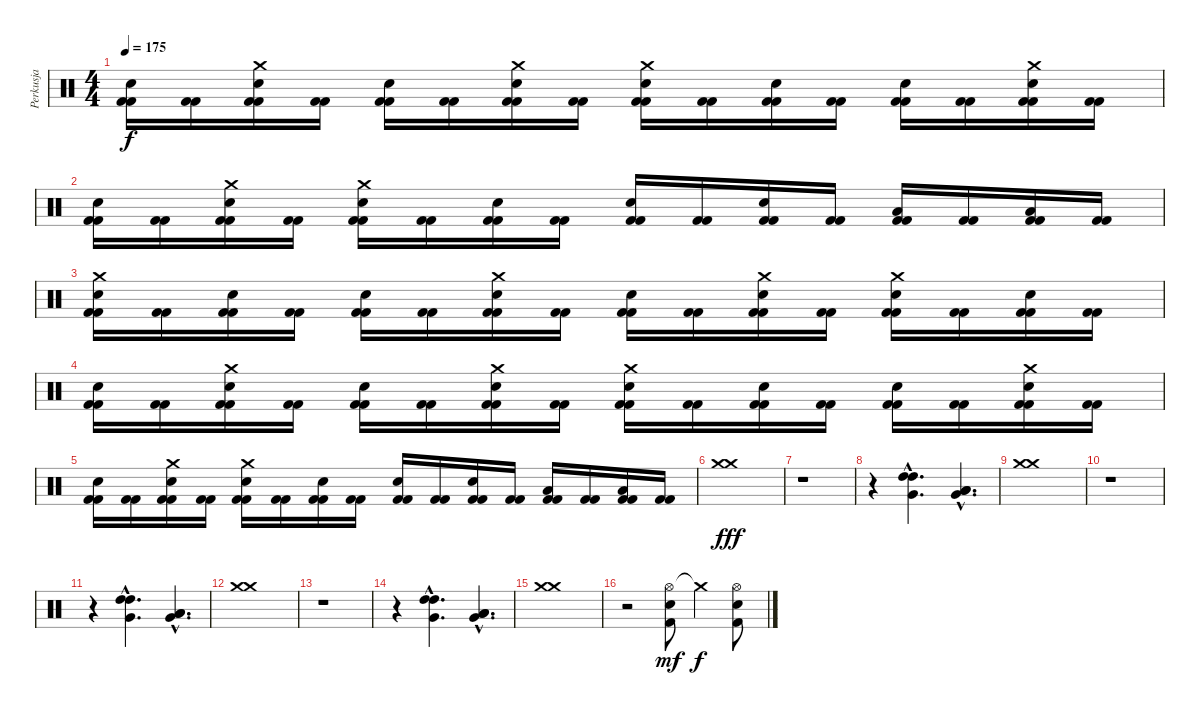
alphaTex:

\track ("Perkusja" "Perkusja") {instrument percussion}
\staff {score}
\articulation defaults
\ts (4 4)
\tempo 175
\clef neutral
\ks c
("Snare (hit) 2" "Kick (hit) 2" "Kick (hit) 2").16{dy f} ("Kick (hit) 2" "Kick (hit) 2").16 ("Crash medium (hit)" "Snare (hit) 2" "Kick (hit) 2" "Kick (hit) 2").16 ("Kick (hit) 2" "Kick (hit) 2").16 ("Snare (hit) 2" "Kick (hit) 2" "Kick (hit) 2").16 ("Kick (hit) 2" "Kick (hit) 2").16 ("Crash medium (hit)" "Snare (hit) 2" "Kick (hit) 2" "Kick (hit) 2").16 ("Kick (hit) 2" "Kick (hit) 2").16 ("Crash medium (hit)" "Snare (hit) 2" "Kick (hit) 2" "Kick (hit) 2").16 ("Kick (hit) 2" "Kick (hit) 2").16 ("Snare (hit) 2" "Kick (hit) 2" "Kick (hit) 2").16 ("Kick (hit) 2" "Kick (hit) 2").16 ("Snare (hit) 2" "Kick (hit) 2" "Kick (hit) 2").16 ("Kick (hit) 2" "Kick (hit) 2").16 ("Crash medium (hit)" "Snare (hit) 2" "Kick (hit) 2" "Kick (hit) 2").16 ("Kick (hit) 2" "Kick (hit) 2").16 |
("Snare (hit) 2" "Kick (hit) 2" "Kick (hit) 2").16 ("Kick (hit) 2" "Kick (hit) 2").16 ("Crash medium (hit)" "Snare (hit) 2" "Kick (hit) 2" "Kick (hit) 2").16 ("Kick (hit) 2" "Kick (hit) 2").16 ("Crash medium (hit)" "Snare (hit) 2" "Kick (hit) 2" "Kick (hit) 2").16 ("Kick (hit) 2" "Kick (hit) 2").16 ("Snare (hit) 2" "Kick (hit) 2" "Kick (hit) 2").16 ("Kick (hit) 2" "Kick (hit) 2").16 ("Electric Snare (hit)" "Kick (hit) 2" "Kick (hit) 2").16 ("Kick (hit) 2" "Kick (hit) 2").16 ("Electric Snare (hit)" "Kick (hit) 2" "Kick (hit) 2").16 ("Kick (hit) 2" "Kick (hit) 2").16 ("Low Tom (hit)" "Kick (hit) 2" "Kick (hit) 2").16 ("Kick (hit) 2" "Kick (hit) 2").16 ("Low Tom (hit)" "Kick (hit) 2" "Kick (hit) 2").16 ("Kick (hit) 2" "Kick (hit) 2").16 |
("Crash medium (hit)" "Snare (hit) 2" "Kick (hit) 2" "Kick (hit) 2").16 ("Kick (hit) 2" "Kick (hit) 2").16 ("Snare (hit) 2" "Kick (hit) 2" "Kick (hit) 2").16 ("Kick (hit) 2" "Kick (hit) 2").16 ("Snare (hit) 2" "Kick (hit) 2" "Kick (hit) 2").16 ("Kick (hit) 2" "Kick (hit) 2").16 ("Crash medium (hit)" "Snare (hit) 2" "Kick (hit) 2" "Kick (hit) 2").16 ("Kick (hit) 2" "Kick (hit) 2").16 ("Snare (hit) 2" "Kick (hit) 2" "Kick (hit) 2").16 ("Kick (hit) 2" "Kick (hit) 2").16 ("Crash medium (hit)" "Snare (hit) 2" "Kick (hit) 2" "Kick (hit) 2").16 ("Kick (hit) 2" "Kick (hit) 2").16 ("Crash medium (hit)" "Snare (hit) 2" "Kick (hit) 2" "Kick (hit) 2").16 ("Kick (hit) 2" "Kick (hit) 2").16 ("Snare (hit) 2" "Kick (hit) 2" "Kick (hit) 2").16 ("Kick (hit) 2" "Kick (hit) 2").16 |
("Snare (hit) 2" "Kick (hit) 2" "Kick (hit) 2").16 ("Kick (hit) 2" "Kick (hit) 2").16 ("Crash medium (hit)" "Snare (hit) 2" "Kick (hit) 2" "Kick (hit) 2").16 ("Kick (hit) 2" "Kick (hit) 2").16 ("Snare (hit) 2" "Kick (hit) 2" "Kick (hit) 2").16 ("Kick (hit) 2" "Kick (hit) 2").16 ("Crash medium (hit)" "Snare (hit) 2" "Kick (hit) 2" "Kick (hit) 2").16 ("Kick (hit) 2" "Kick (hit) 2").16 ("Crash medium (hit)" "Snare (hit) 2" "Kick (hit) 2" "Kick (hit) 2").16 ("Kick (hit) 2" "Kick (hit) 2").16 ("Snare (hit) 2" "Kick (hit) 2" "Kick (hit) 2").16 ("Kick (hit) 2" "Kick (hit) 2").16 ("Snare (hit) 2" "Kick (hit) 2" "Kick (hit) 2").16 ("Kick (hit) 2" "Kick (hit) 2").16 ("Crash medium (hit)" "Snare (hit) 2" "Kick (hit) 2" "Kick (hit) 2").16 ("Kick (hit) 2" "Kick (hit) 2").16 |
("Snare (hit) 2" "Kick (hit) 2" "Kick (hit) 2").16 ("Kick (hit) 2" "Kick (hit) 2").16 ("Crash medium (hit)" "Snare (hit) 2" "Kick (hit) 2" "Kick (hit) 2").16 ("Kick (hit) 2" "Kick (hit) 2").16 ("Crash medium (hit)" "Snare (hit) 2" "Kick (hit) 2" "Kick (hit) 2").16 ("Kick (hit) 2" "Kick (hit) 2").16 ("Snare (hit) 2" "Kick (hit) 2" "Kick (hit) 2").16 ("Kick (hit) 2" "Kick (hit) 2").16 ("Electric Snare (hit)" "Kick (hit) 2" "Kick (hit) 2").16 ("Kick (hit) 2" "Kick (hit) 2").16 ("Electric Snare (hit)" "Kick (hit) 2" "Kick (hit) 2").16 ("Kick (hit) 2" "Kick (hit) 2").16 ("Low Tom (hit)" "Kick (hit) 2" "Kick (hit) 2").16 ("Kick (hit) 2" "Kick (hit) 2").16 ("Low Tom (hit)" "Kick (hit) 2" "Kick (hit) 2").16 ("Kick (hit) 2" "Kick (hit) 2").16 |
("Crash medium (hit)" "Crash medium (hit)").1{dy fff} |
r.1 |
r.4 ("Very Low Tom (hit)"{hac} "High Tom (hit)"{hac} "High Tom (hit)"{hac}).4{d} ("Very Low Tom (hit)"{hac} "Low Tom (hit)"{hac} "Low Tom (hit)"{hac}).4{d} |
("Crash medium (hit)" "Crash medium (hit)").1 |
r.1 |
r.4 ("Very Low Tom (hit)"{hac} "High Tom (hit)"{hac} "High Tom (hit)"{hac}).4{d} ("Very Low Tom (hit)"{hac} "Low Tom (hit)"{hac} "Low Tom (hit)"{hac}).4{d} |
("Crash medium (hit)" "Crash medium (hit)").1 |
r.1 |
r.4 ("Very Low Tom (hit)"{hac} "High Tom (hit)"{hac} "High Tom (hit)"{hac}).4{d} ("Very Low Tom (hit)"{hac} "Low Tom (hit)"{hac} "Low Tom (hit)"{hac}).4{d} |
("Crash medium (hit)" "Crash medium (hit)").1 |
r.2 ("Hi-Hat (open)" "Snare (hit) 2" "Kick (hit) 2"{tr (36 16)}).8{dy mf} "Crash medium (hit)"{t}.4{dy f} ("Hi-Hat (open)" "Snare (hit) 2" "Kick (hit) 2"{tr (36 16)}).8
